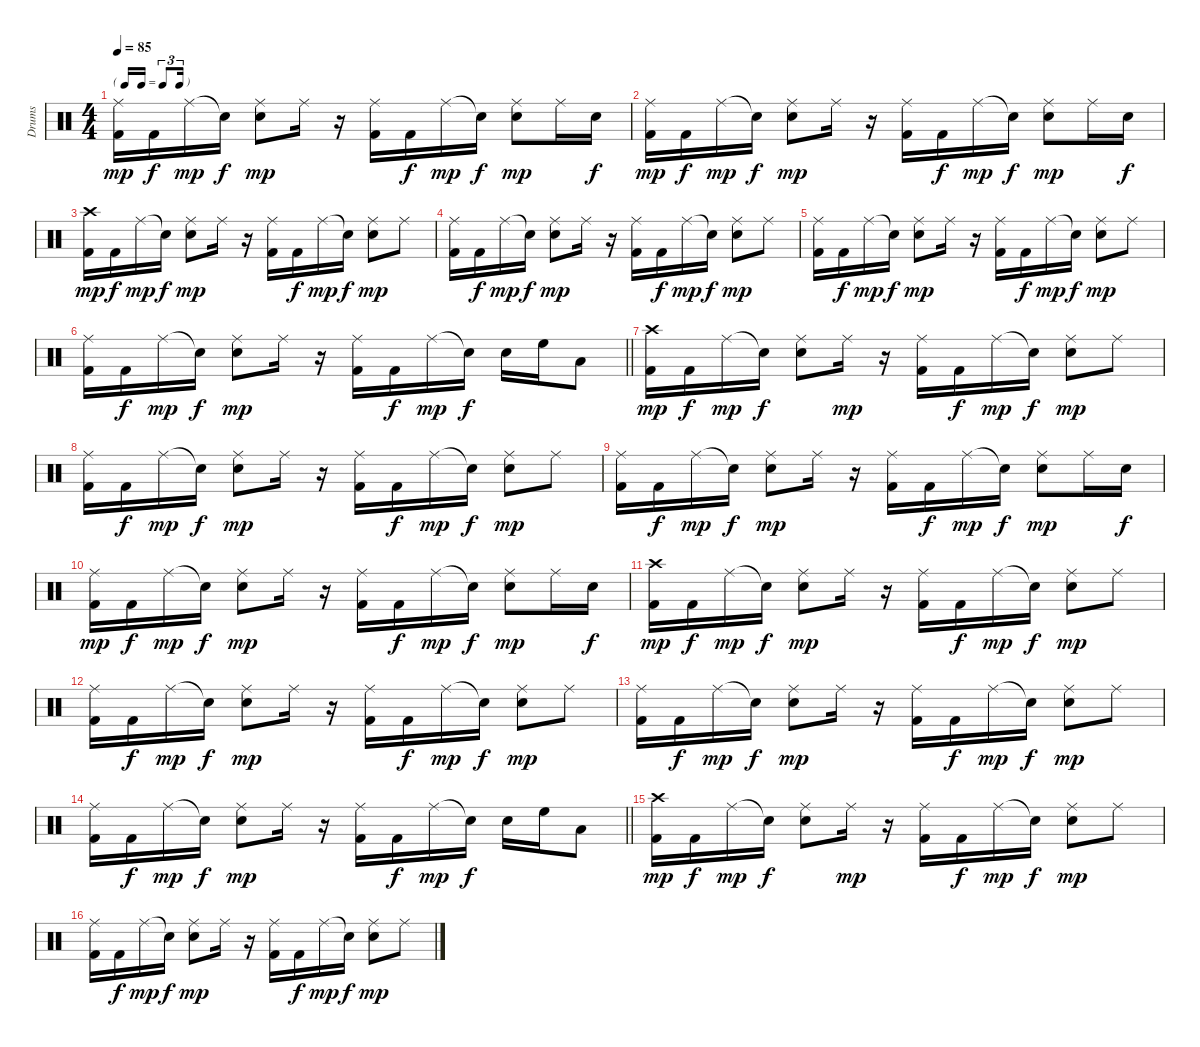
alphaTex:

\track ("Drums" "Drums") {instrument percussion}
\staff {score}
\articulation defaults
\ts (4 4)
\tf triplet16th
\tempo 85
\clef neutral
\ks c
("Ride (middle)" "Kick (hit) 2").16{dy mp} "Kick (hit) 2".16{dy f} "Ride (middle)".16{dy mp} "Snare (hit)"{t}.16{dy f} ("Ride (middle)" "Electric Snare (hit)").8{dy mp} "Ride (middle)".16 r.16 ("Ride (middle)" "Kick (hit) 2").16 "Kick (hit) 2".16{dy f} "Ride (middle)".16{dy mp} "Snare (hit)"{t}.16{dy f} ("Ride (middle)" "Electric Snare (hit)").8{dy mp} "Ride (middle)".16 "Electric Snare (hit)".16{dy f} |
("Ride (middle)" "Kick (hit) 2").16{dy mp} "Kick (hit) 2".16{dy f} "Ride (middle)".16{dy mp} "Snare (hit)"{t}.16{dy f} ("Ride (middle)" "Electric Snare (hit)").8{dy mp} "Ride (middle)".16 r.16 ("Ride (middle)" "Kick (hit) 2").16 "Kick (hit) 2".16{dy f} "Ride (middle)".16{dy mp} "Snare (hit)"{t}.16{dy f} ("Ride (middle)" "Electric Snare (hit)").8{dy mp} "Ride (middle)".16 "Electric Snare (hit)".16{dy f} |
("Crash high (hit)" "Kick (hit) 2").16{dy mp} "Kick (hit) 2".16{dy f} "Ride (middle)".16{dy mp} "Snare (hit)"{t}.16{dy f} ("Ride (middle)" "Electric Snare (hit)").8{dy mp} "Ride (middle)".16 r.16 ("Ride (middle)" "Kick (hit) 2").16 "Kick (hit) 2".16{dy f} "Ride (middle)".16{dy mp} "Snare (hit)"{t}.16{dy f} ("Ride (middle)" "Electric Snare (hit)").8{dy mp} "Ride (middle)".8 |
("Ride (middle)" "Kick (hit) 2").16 "Kick (hit) 2".16{dy f} "Ride (middle)".16{dy mp} "Snare (hit)"{t}.16{dy f} ("Ride (middle)" "Electric Snare (hit)").8{dy mp} "Ride (middle)".16 r.16 ("Ride (middle)" "Kick (hit) 2").16 "Kick (hit) 2".16{dy f} "Ride (middle)".16{dy mp} "Snare (hit)"{t}.16{dy f} ("Ride (middle)" "Electric Snare (hit)").8{dy mp} "Ride (middle)".8 |
("Ride (middle)" "Kick (hit) 2").16 "Kick (hit) 2".16{dy f} "Ride (middle)".16{dy mp} "Snare (hit)"{t}.16{dy f} ("Ride (middle)" "Electric Snare (hit)").8{dy mp} "Ride (middle)".16 r.16 ("Ride (middle)" "Kick (hit) 2").16 "Kick (hit) 2".16{dy f} "Ride (middle)".16{dy mp} "Snare (hit)"{t}.16{dy f} ("Ride (middle)" "Electric Snare (hit)").8{dy mp} "Ride (middle)".8 |
\barLineRight lightlight
("Ride (middle)" "Kick (hit) 2").16 "Kick (hit) 2".16{dy f} "Ride (middle)".16{dy mp} "Snare (hit)"{t}.16{dy f} ("Ride (middle)" "Electric Snare (hit)").8{dy mp} "Ride (middle)".16 r.16 ("Ride (middle)" "Kick (hit) 2").16 "Kick (hit) 2".16{dy f} "Ride (middle)".16{dy mp} "Snare (hit)"{t}.16{dy f} "Electric Snare (hit)".16 "High Floor Tom (hit)".16 "Low Tom (hit)".8 |
("Crash high (hit)" "Kick (hit) 2").16{dy mp} "Kick (hit) 2".16{dy f} "Ride (middle)".16{dy mp} "Snare (hit)"{t}.16{dy f} ("Ride (middle)" "Electric Snare (hit)").8 "Ride (middle)".16{dy mp} r.16 ("Ride (middle)" "Kick (hit) 2").16 "Kick (hit) 2".16{dy f} "Ride (middle)".16{dy mp} "Snare (hit)"{t}.16{dy f} ("Ride (middle)" "Electric Snare (hit)").8{dy mp} "Ride (middle)".8 |
("Ride (middle)" "Kick (hit) 2").16 "Kick (hit) 2".16{dy f} "Ride (middle)".16{dy mp} "Snare (hit)"{t}.16{dy f} ("Ride (middle)" "Electric Snare (hit)").8{dy mp} "Ride (middle)".16 r.16 ("Ride (middle)" "Kick (hit) 2").16 "Kick (hit) 2".16{dy f} "Ride (middle)".16{dy mp} "Snare (hit)"{t}.16{dy f} ("Ride (middle)" "Electric Snare (hit)").8{dy mp} "Ride (middle)".8 |
("Ride (middle)" "Kick (hit) 2").16 "Kick (hit) 2".16{dy f} "Ride (middle)".16{dy mp} "Snare (hit)"{t}.16{dy f} ("Ride (middle)" "Electric Snare (hit)").8{dy mp} "Ride (middle)".16 r.16 ("Ride (middle)" "Kick (hit) 2").16 "Kick (hit) 2".16{dy f} "Ride (middle)".16{dy mp} "Snare (hit)"{t}.16{dy f} ("Ride (middle)" "Electric Snare (hit)").8{dy mp} "Ride (middle)".16 "Electric Snare (hit)".16{dy f} |
("Ride (middle)" "Kick (hit) 2").16{dy mp} "Kick (hit) 2".16{dy f} "Ride (middle)".16{dy mp} "Snare (hit)"{t}.16{dy f} ("Ride (middle)" "Electric Snare (hit)").8{dy mp} "Ride (middle)".16 r.16 ("Ride (middle)" "Kick (hit) 2").16 "Kick (hit) 2".16{dy f} "Ride (middle)".16{dy mp} "Snare (hit)"{t}.16{dy f} ("Ride (middle)" "Electric Snare (hit)").8{dy mp} "Ride (middle)".16 "Electric Snare (hit)".16{dy f} |
("Crash high (hit)" "Kick (hit) 2").16{dy mp} "Kick (hit) 2".16{dy f} "Ride (middle)".16{dy mp} "Snare (hit)"{t}.16{dy f} ("Ride (middle)" "Electric Snare (hit)").8{dy mp} "Ride (middle)".16 r.16 ("Ride (middle)" "Kick (hit) 2").16 "Kick (hit) 2".16{dy f} "Ride (middle)".16{dy mp} "Snare (hit)"{t}.16{dy f} ("Ride (middle)" "Electric Snare (hit)").8{dy mp} "Ride (middle)".8 |
("Ride (middle)" "Kick (hit) 2").16 "Kick (hit) 2".16{dy f} "Ride (middle)".16{dy mp} "Snare (hit)"{t}.16{dy f} ("Ride (middle)" "Electric Snare (hit)").8{dy mp} "Ride (middle)".16 r.16 ("Ride (middle)" "Kick (hit) 2").16 "Kick (hit) 2".16{dy f} "Ride (middle)".16{dy mp} "Snare (hit)"{t}.16{dy f} ("Ride (middle)" "Electric Snare (hit)").8{dy mp} "Ride (middle)".8 |
("Ride (middle)" "Kick (hit) 2").16 "Kick (hit) 2".16{dy f} "Ride (middle)".16{dy mp} "Snare (hit)"{t}.16{dy f} ("Ride (middle)" "Electric Snare (hit)").8{dy mp} "Ride (middle)".16 r.16 ("Ride (middle)" "Kick (hit) 2").16 "Kick (hit) 2".16{dy f} "Ride (middle)".16{dy mp} "Snare (hit)"{t}.16{dy f} ("Ride (middle)" "Electric Snare (hit)").8{dy mp} "Ride (middle)".8 |
\barLineRight lightlight
("Ride (middle)" "Kick (hit) 2").16 "Kick (hit) 2".16{dy f} "Ride (middle)".16{dy mp} "Snare (hit)"{t}.16{dy f} ("Ride (middle)" "Electric Snare (hit)").8{dy mp} "Ride (middle)".16 r.16 ("Ride (middle)" "Kick (hit) 2").16 "Kick (hit) 2".16{dy f} "Ride (middle)".16{dy mp} "Snare (hit)"{t}.16{dy f} "Electric Snare (hit)".16 "High Floor Tom (hit)".16 "Low Tom (hit)".8 |
("Crash high (hit)" "Kick (hit) 2").16{dy mp} "Kick (hit) 2".16{dy f} "Ride (middle)".16{dy mp} "Snare (hit)"{t}.16{dy f} ("Ride (middle)" "Electric Snare (hit)").8 "Ride (middle)".16{dy mp} r.16 ("Ride (middle)" "Kick (hit) 2").16 "Kick (hit) 2".16{dy f} "Ride (middle)".16{dy mp} "Snare (hit)"{t}.16{dy f} ("Ride (middle)" "Electric Snare (hit)").8{dy mp} "Ride (middle)".8 |
("Ride (middle)" "Kick (hit) 2").16 "Kick (hit) 2".16{dy f} "Ride (middle)".16{dy mp} "Snare (hit)"{t}.16{dy f} ("Ride (middle)" "Electric Snare (hit)").8{dy mp} "Ride (middle)".16 r.16 ("Ride (middle)" "Kick (hit) 2").16 "Kick (hit) 2".16{dy f} "Ride (middle)".16{dy mp} "Snare (hit)"{t}.16{dy f} ("Ride (middle)" "Electric Snare (hit)").8{dy mp} "Ride (middle)".8
